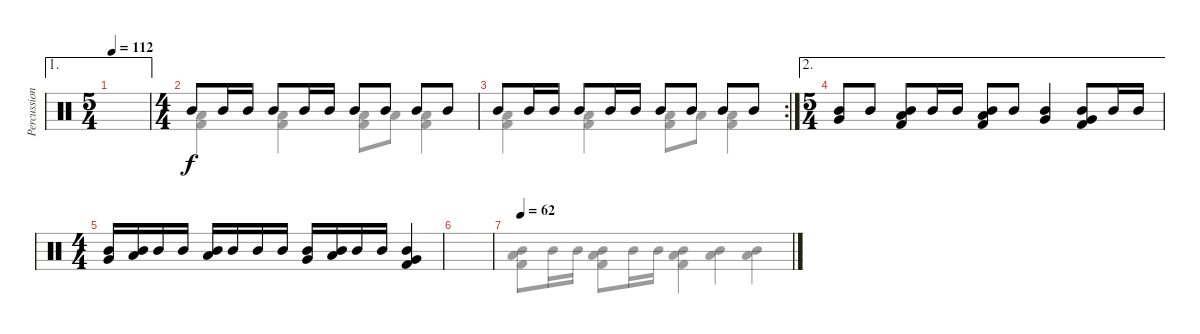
\track ("Percussion" "Percussion") {instrument percussion}
\staff {score}
\articulation defaults
\voice
\ae 1
\ts (5 4)
\tempo 112
\clef neutral
\ks c
|
\ts (4 4)
"Mid Tom (hit)".8 "Mid Tom (hit)".16 "Mid Tom (hit)".16 "Mid Tom (hit)".8 "Mid Tom (hit)".16 "Mid Tom (hit)".16 "Mid Tom (hit)".8 "Mid Tom (hit)".8 "Mid Tom (hit)".8 "Mid Tom (hit)".8 |
\rc 2 "Mid Tom (hit)".8 "Mid Tom (hit)".16 "Mid Tom (hit)".16 "Mid Tom (hit)".8 "Mid Tom (hit)".16 "Mid Tom (hit)".16 "Mid Tom (hit)".8 "Mid Tom (hit)".8 "Mid Tom (hit)".8 "Mid Tom (hit)".8
|
\ae 2
\ts (5 4)
("Mid Tom (hit)" "Very Low Tom (hit)").8 "Mid Tom (hit)".8 ("Mid Tom (hit)" "Low Floor Tom (hit)" "Kick (hit) 2").8 "Mid Tom (hit)".16 "Mid Tom (hit)".16 ("Mid Tom (hit)" "Low Floor Tom (hit)" "Kick (hit) 2").8 "Mid Tom (hit)".8 ("Mid Tom (hit)" "Very Low Tom (hit)").4 ("Mid Tom (hit)" "Very Low Tom (hit)" "Kick (hit) 2").8 "Mid Tom (hit)".16 "Mid Tom (hit)".16 |
\ts (4 4)
("Mid Tom (hit)" "Very Low Tom (hit)").16 ("Mid Tom (hit)" "Low Tom (hit)").16 "Mid Tom (hit)".16 "Mid Tom (hit)".16 ("Mid Tom (hit)" "Low Tom (hit)").16 "Mid Tom (hit)".16 "Mid Tom (hit)".16 "Mid Tom (hit)".16 ("Mid Tom (hit)" "Very Low Tom (hit)").16 ("Mid Tom (hit)" "Low Tom (hit)").16 "Mid Tom (hit)".16 "Mid Tom (hit)".16 ("Mid Tom (hit)" "Very Low Tom (hit)" "Kick (hit) 2").4 |
|
\tempo 62
\voice
\clef neutral
\ottava regular
\simile none
\ks c
("Mid Tom (hit)" "Low Floor Tom (hit)" "Kick (hit) 2").8{dy f} "Mid Tom (hit)".16 "Mid Tom (hit)".16 ("Mid Tom (hit)" "Low Floor Tom (hit)" "Kick (hit) 2").8 "Mid Tom (hit)".16 "Mid Tom (hit)".16 ("Mid Tom (hit)" "Low Tom (hit)" "Kick (hit) 2").4 ("Mid Tom (hit)" "Low Tom (hit)").4 ("Mid Tom (hit)" "Low Tom (hit)").4 |
("Low Tom (hit)" "Kick (hit) 2").4 ("Low Floor Tom (hit)" "Kick (hit) 2").4 ("Low Floor Tom (hit)" "Kick (hit) 2").8 "Low Floor Tom (hit)".8 ("Low Tom (hit)" "Kick (hit) 2").4 |
("Low Tom (hit)" "Kick (hit) 2").4 ("Low Floor Tom (hit)" "Kick (hit) 2").4 ("Low Floor Tom (hit)" "Kick (hit) 2").8 "Low Floor Tom (hit)".8 ("Low Tom (hit)" "Kick (hit) 2").4 |
|
|
|
